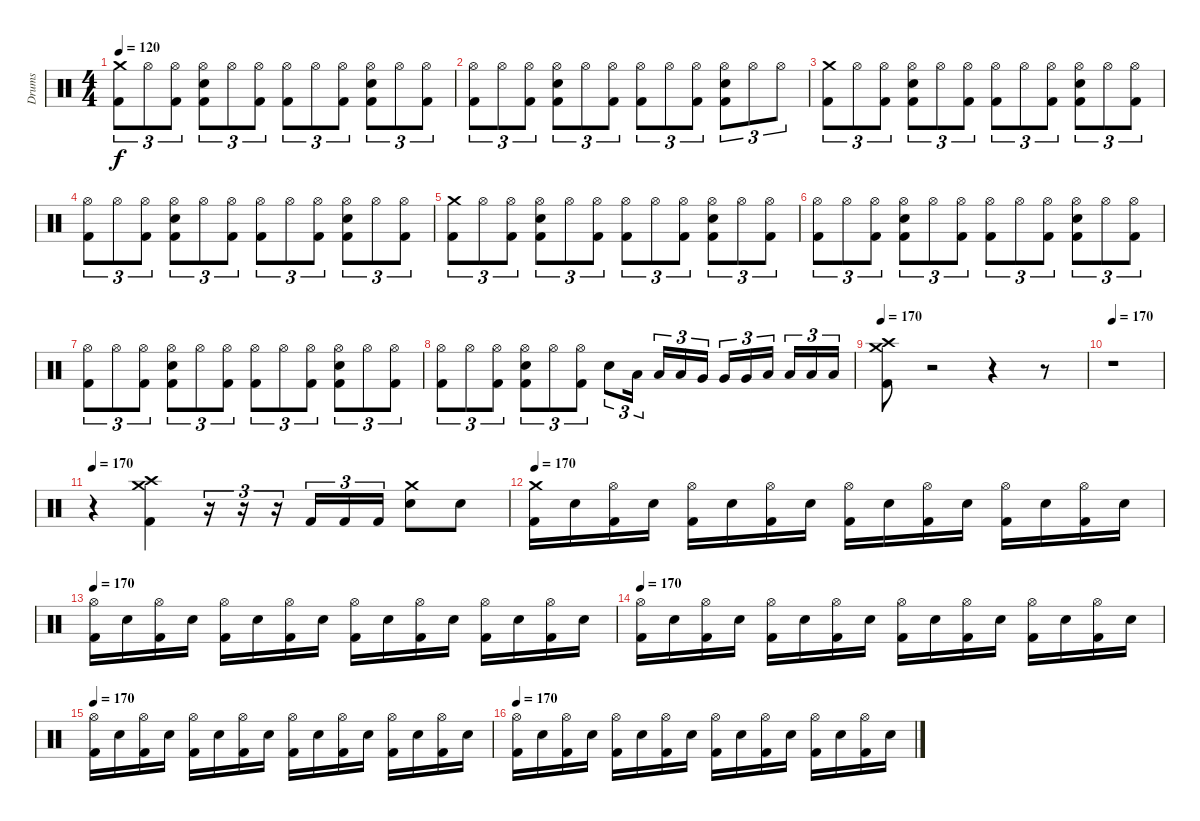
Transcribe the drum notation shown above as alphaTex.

\track ("Drums" "Drums") {instrument percussion}
\staff {score}
\articulation defaults
\ts (4 4)
\tempo 120
\clef neutral
\ks c
("Crash medium (hit)" "Kick (hit) 2").8{tu (3 2) dy f} "Hi-Hat (open)".8{tu (3 2)} ("Hi-Hat (open)" "Kick (hit) 2").8{tu (3 2)} ("Hi-Hat (open)" "Snare (hit) 2" "Kick (hit) 2").8{tu (3 2)} "Hi-Hat (open)".8{tu (3 2)} ("Hi-Hat (open)" "Kick (hit) 2").8{tu (3 2)} ("Hi-Hat (open)" "Kick (hit) 2").8{tu (3 2)} "Hi-Hat (open)".8{tu (3 2)} ("Hi-Hat (open)" "Kick (hit) 2").8{tu (3 2)} ("Hi-Hat (open)" "Snare (hit) 2" "Kick (hit) 2").8{tu (3 2)} "Hi-Hat (open)".8{tu (3 2)} ("Hi-Hat (open)" "Kick (hit) 2").8{tu (3 2)} |
("Hi-Hat (open)" "Kick (hit) 2").8{tu (3 2)} "Hi-Hat (open)".8{tu (3 2)} ("Hi-Hat (open)" "Kick (hit) 2").8{tu (3 2)} ("Hi-Hat (open)" "Snare (hit) 2" "Kick (hit) 2").8{tu (3 2)} "Hi-Hat (open)".8{tu (3 2)} ("Hi-Hat (open)" "Kick (hit) 2").8{tu (3 2)} ("Hi-Hat (open)" "Kick (hit) 2").8{tu (3 2)} "Hi-Hat (open)".8{tu (3 2)} ("Hi-Hat (open)" "Kick (hit) 2").8{tu (3 2)} ("Hi-Hat (open)" "Snare (hit) 2" "Kick (hit) 2").8{tu (3 2)} "Hi-Hat (open)".8{tu (3 2)} "Hi-Hat (open)".8{tu (3 2)} |
("Crash medium (hit)" "Kick (hit) 2").8{tu (3 2)} "Hi-Hat (open)".8{tu (3 2)} ("Hi-Hat (open)" "Kick (hit) 2").8{tu (3 2)} ("Hi-Hat (open)" "Snare (hit) 2" "Kick (hit) 2").8{tu (3 2)} "Hi-Hat (open)".8{tu (3 2)} ("Hi-Hat (open)" "Kick (hit) 2").8{tu (3 2)} ("Hi-Hat (open)" "Kick (hit) 2").8{tu (3 2)} "Hi-Hat (open)".8{tu (3 2)} ("Hi-Hat (open)" "Kick (hit) 2").8{tu (3 2)} ("Hi-Hat (open)" "Snare (hit) 2" "Kick (hit) 2").8{tu (3 2)} "Hi-Hat (open)".8{tu (3 2)} ("Hi-Hat (open)" "Kick (hit) 2").8{tu (3 2)} |
("Hi-Hat (open)" "Kick (hit) 2").8{tu (3 2)} "Hi-Hat (open)".8{tu (3 2)} ("Hi-Hat (open)" "Kick (hit) 2").8{tu (3 2)} ("Hi-Hat (open)" "Snare (hit) 2" "Kick (hit) 2").8{tu (3 2)} "Hi-Hat (open)".8{tu (3 2)} ("Hi-Hat (open)" "Kick (hit) 2").8{tu (3 2)} ("Hi-Hat (open)" "Kick (hit) 2").8{tu (3 2)} "Hi-Hat (open)".8{tu (3 2)} ("Hi-Hat (open)" "Kick (hit) 2").8{tu (3 2)} ("Hi-Hat (open)" "Snare (hit) 2" "Kick (hit) 2").8{tu (3 2)} "Hi-Hat (open)".8{tu (3 2)} ("Hi-Hat (open)" "Kick (hit) 2").8{tu (3 2)} |
("Crash medium (hit)" "Kick (hit) 2").8{tu (3 2)} "Hi-Hat (open)".8{tu (3 2)} ("Hi-Hat (open)" "Kick (hit) 2").8{tu (3 2)} ("Hi-Hat (open)" "Snare (hit) 2" "Kick (hit) 2").8{tu (3 2)} "Hi-Hat (open)".8{tu (3 2)} ("Hi-Hat (open)" "Kick (hit) 2").8{tu (3 2)} ("Hi-Hat (open)" "Kick (hit) 2").8{tu (3 2)} "Hi-Hat (open)".8{tu (3 2)} ("Hi-Hat (open)" "Kick (hit) 2").8{tu (3 2)} ("Hi-Hat (open)" "Snare (hit) 2" "Kick (hit) 2").8{tu (3 2)} "Hi-Hat (open)".8{tu (3 2)} ("Hi-Hat (open)" "Kick (hit) 2").8{tu (3 2)} |
("Hi-Hat (open)" "Kick (hit) 2").8{tu (3 2)} "Hi-Hat (open)".8{tu (3 2)} ("Hi-Hat (open)" "Kick (hit) 2").8{tu (3 2)} ("Hi-Hat (open)" "Snare (hit) 2" "Kick (hit) 2").8{tu (3 2)} "Hi-Hat (open)".8{tu (3 2)} ("Hi-Hat (open)" "Kick (hit) 2").8{tu (3 2)} ("Hi-Hat (open)" "Kick (hit) 2").8{tu (3 2)} "Hi-Hat (open)".8{tu (3 2)} ("Hi-Hat (open)" "Kick (hit) 2").8{tu (3 2)} ("Hi-Hat (open)" "Snare (hit) 2" "Kick (hit) 2").8{tu (3 2)} "Hi-Hat (open)".8{tu (3 2)} ("Hi-Hat (open)" "Kick (hit) 2").8{tu (3 2)} |
("Hi-Hat (open)" "Kick (hit) 2").8{tu (3 2)} "Hi-Hat (open)".8{tu (3 2)} ("Hi-Hat (open)" "Kick (hit) 2").8{tu (3 2)} ("Hi-Hat (open)" "Snare (hit) 2" "Kick (hit) 2").8{tu (3 2)} "Hi-Hat (open)".8{tu (3 2)} ("Hi-Hat (open)" "Kick (hit) 2").8{tu (3 2)} ("Hi-Hat (open)" "Kick (hit) 2").8{tu (3 2)} "Hi-Hat (open)".8{tu (3 2)} ("Hi-Hat (open)" "Kick (hit) 2").8{tu (3 2)} ("Hi-Hat (open)" "Snare (hit) 2" "Kick (hit) 2").8{tu (3 2)} "Hi-Hat (open)".8{tu (3 2)} ("Hi-Hat (open)" "Kick (hit) 2").8{tu (3 2)} |
("Hi-Hat (open)" "Kick (hit) 2").8{tu (3 2)} "Hi-Hat (open)".8{tu (3 2)} ("Hi-Hat (open)" "Kick (hit) 2").8{tu (3 2)} ("Hi-Hat (open)" "Snare (hit) 2" "Kick (hit) 2").8{tu (3 2)} "Hi-Hat (open)".8{tu (3 2)} ("Hi-Hat (open)" "Kick (hit) 2").8{tu (3 2)} "Snare (hit) 2".8{tu (3 2)} "Low Tom (hit)".16{tu (3 2)} "Low Tom (hit)".16{tu (3 2)} "Low Tom (hit)".16{tu (3 2)} "Very Low Tom (hit)".16{tu (3 2)} "Very Low Tom (hit)".16{tu (3 2)} "Very Low Tom (hit)".16{tu (3 2)} "Low Floor Tom (hit)".16{tu (3 2)} "Low Floor Tom (hit)".16{tu (3 2)} "Low Floor Tom (hit)".16{tu (3 2)} "Low Floor Tom (hit)".16{tu (3 2)} |
\tempo 170
("Crash medium (hit)" "Crash high (hit)" "Kick (hit) 2").8 r.2 r.4 r.8 |
\tempo 170
r.1 |
\tempo 170
r.4 ("Crash medium (hit)" "Crash high (hit)" "Kick (hit) 2").4 r.16{tu (3 2)} r.16{tu (3 2)} r.16{tu (3 2)} "Kick (hit) 2".16{tu (3 2)} "Kick (hit) 2".16{tu (3 2)} "Kick (hit) 2".16{tu (3 2)} ("Crash medium (hit)" "Snare (hit) 2").8 "Snare (hit) 2".8 |
\tempo 170
("Crash medium (hit)" "Kick (hit) 2").16 "Snare (hit) 2".16 ("Hi-Hat (open)" "Kick (hit) 2").16 "Snare (hit) 2".16 ("Hi-Hat (open)" "Kick (hit) 2").16 "Snare (hit) 2".16 ("Hi-Hat (open)" "Kick (hit) 2").16 "Snare (hit) 2".16 ("Hi-Hat (open)" "Kick (hit) 2").16 "Snare (hit) 2".16 ("Hi-Hat (open)" "Kick (hit) 2").16 "Snare (hit) 2".16 ("Hi-Hat (open)" "Kick (hit) 2").16 "Snare (hit) 2".16 ("Hi-Hat (open)" "Kick (hit) 2").16 "Snare (hit) 2".16 |
\tempo 170
("Hi-Hat (open)" "Kick (hit) 2").16 "Snare (hit) 2".16 ("Hi-Hat (open)" "Kick (hit) 2").16 "Snare (hit) 2".16 ("Hi-Hat (open)" "Kick (hit) 2").16 "Snare (hit) 2".16 ("Hi-Hat (open)" "Kick (hit) 2").16 "Snare (hit) 2".16 ("Hi-Hat (open)" "Kick (hit) 2").16 "Snare (hit) 2".16 ("Hi-Hat (open)" "Kick (hit) 2").16 "Snare (hit) 2".16 ("Hi-Hat (open)" "Kick (hit) 2").16 "Snare (hit) 2".16 ("Hi-Hat (open)" "Kick (hit) 2").16 "Snare (hit) 2".16 |
\tempo 170
("Hi-Hat (open)" "Kick (hit) 2").16 "Snare (hit) 2".16 ("Hi-Hat (open)" "Kick (hit) 2").16 "Snare (hit) 2".16 ("Hi-Hat (open)" "Kick (hit) 2").16 "Snare (hit) 2".16 ("Hi-Hat (open)" "Kick (hit) 2").16 "Snare (hit) 2".16 ("Hi-Hat (open)" "Kick (hit) 2").16 "Snare (hit) 2".16 ("Hi-Hat (open)" "Kick (hit) 2").16 "Snare (hit) 2".16 ("Hi-Hat (open)" "Kick (hit) 2").16 "Snare (hit) 2".16 ("Hi-Hat (open)" "Kick (hit) 2").16 "Snare (hit) 2".16 |
\tempo 170
("Hi-Hat (open)" "Kick (hit) 2").16 "Snare (hit) 2".16 ("Hi-Hat (open)" "Kick (hit) 2").16 "Snare (hit) 2".16 ("Hi-Hat (open)" "Kick (hit) 2").16 "Snare (hit) 2".16 ("Hi-Hat (open)" "Kick (hit) 2").16 "Snare (hit) 2".16 ("Hi-Hat (open)" "Kick (hit) 2").16 "Snare (hit) 2".16 ("Hi-Hat (open)" "Kick (hit) 2").16 "Snare (hit) 2".16 ("Hi-Hat (open)" "Kick (hit) 2").16 "Snare (hit) 2".16 ("Hi-Hat (open)" "Kick (hit) 2").16 "Snare (hit) 2".16 |
\tempo 170
("Hi-Hat (open)" "Kick (hit) 2").16 "Snare (hit) 2".16 ("Hi-Hat (open)" "Kick (hit) 2").16 "Snare (hit) 2".16 ("Hi-Hat (open)" "Kick (hit) 2").16 "Snare (hit) 2".16 ("Hi-Hat (open)" "Kick (hit) 2").16 "Snare (hit) 2".16 ("Hi-Hat (open)" "Kick (hit) 2").16 "Snare (hit) 2".16 ("Hi-Hat (open)" "Kick (hit) 2").16 "Snare (hit) 2".16 ("Hi-Hat (open)" "Kick (hit) 2").16 "Snare (hit) 2".16 ("Hi-Hat (open)" "Kick (hit) 2").16 "Snare (hit) 2".16
